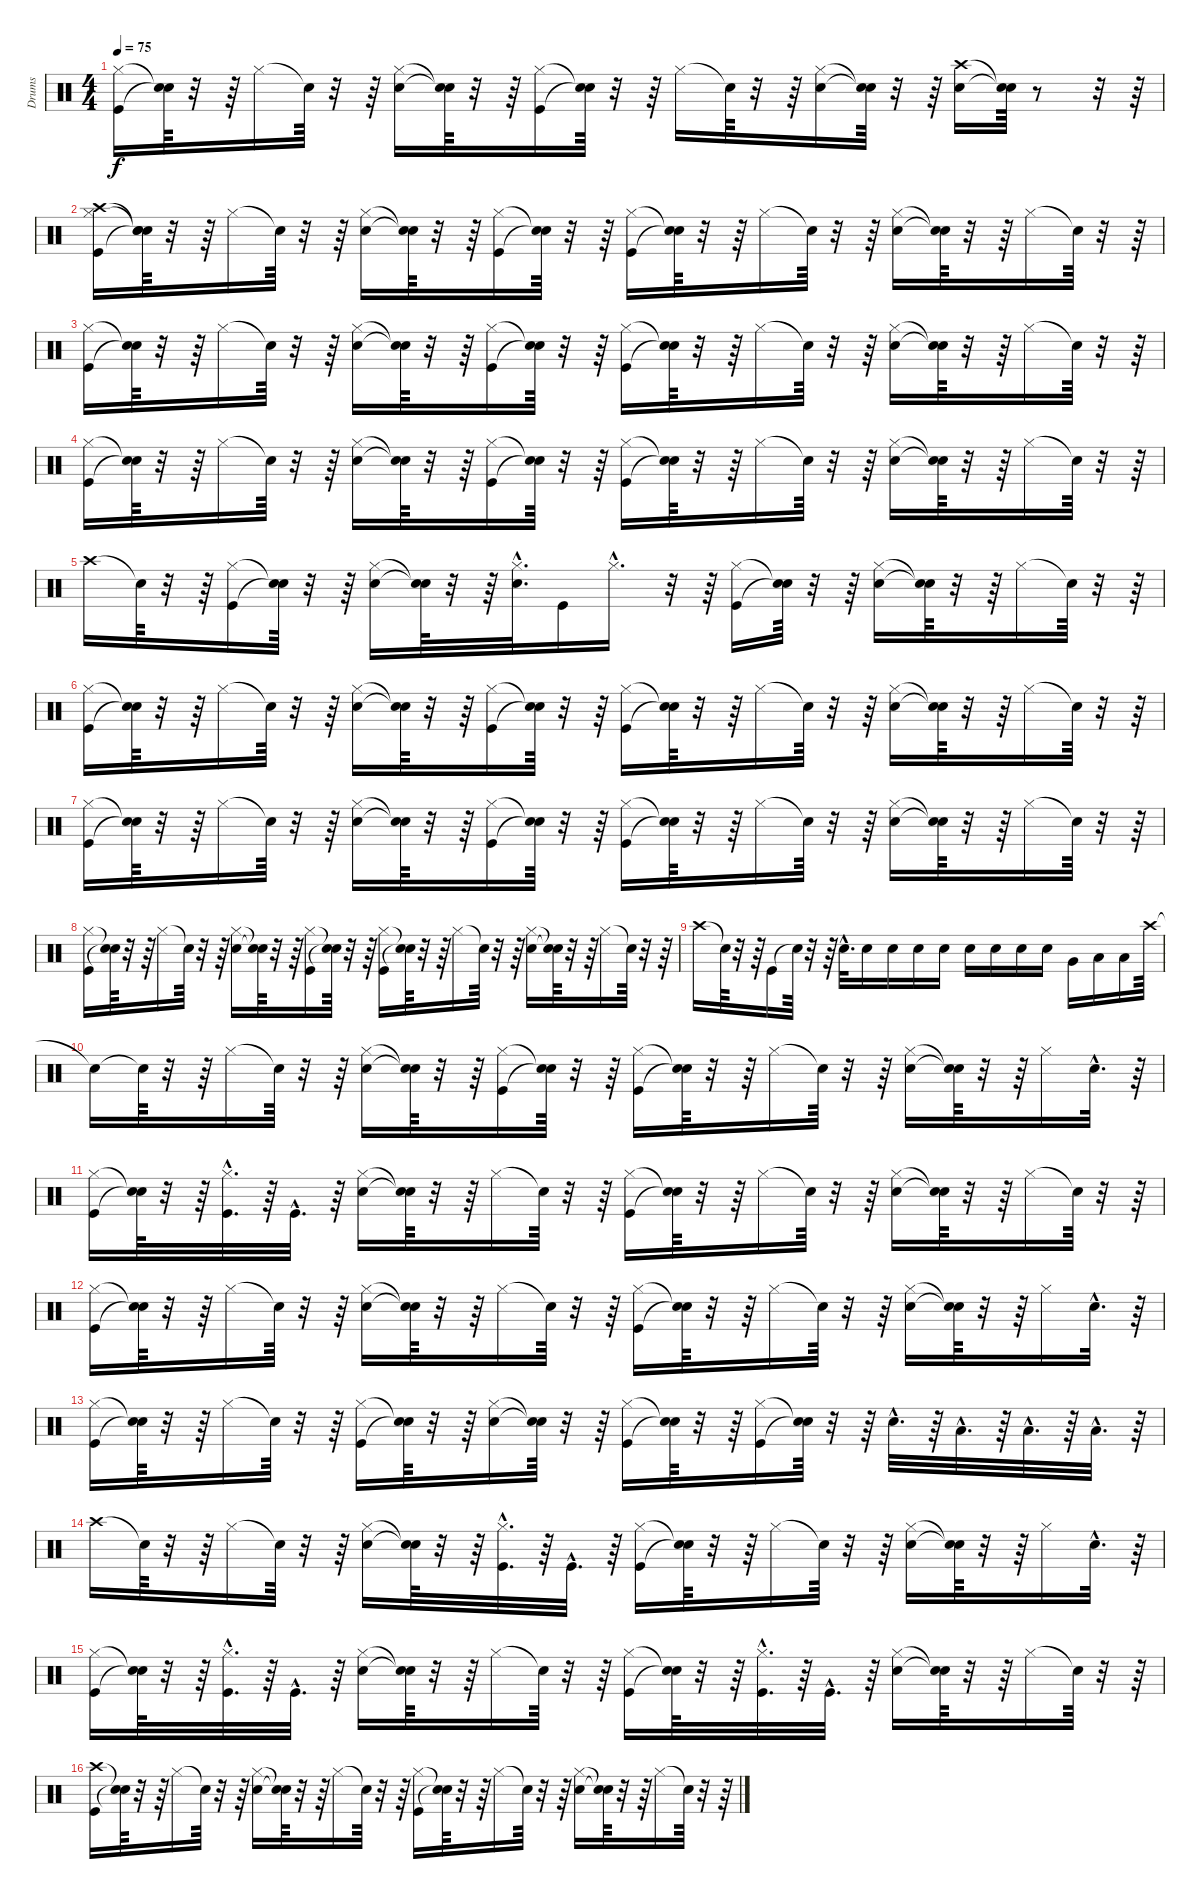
\track ("Drums" "Drums") {instrument percussion}
\staff {score}
\articulation defaults
\ts (4 4)
\tempo 75
\clef neutral
\ks c
("Kick (hit)" "Hi-Hat (closed)").16{dy f} ("Snare (hit)"{t} "Snare (hit)"{t}).64 r.32 r.64 "Hi-Hat (closed)".16 "Snare (hit)"{t}.64 r.32 r.64 ("Snare (hit) 2" "Hi-Hat (closed)").16 ("Snare (hit)"{t} "Snare (hit)"{t}).64 r.32 r.64 ("Hi-Hat (closed)" "Kick (hit)").16 ("Snare (hit)"{t} "Snare (hit)"{t}).64 r.32 r.64 "Hi-Hat (closed)".16 "Snare (hit)"{t}.64 r.32 r.64 ("Snare (hit) 2" "Hi-Hat (closed)").16 ("Snare (hit)"{t} "Snare (hit)"{t}).64 r.32 r.64 ("Crash high (hit)" "Snare (hit) 2").16 ("Snare (hit)"{t} "Snare (hit)"{t}).64 r.8 r.32 r.64 |
("Crash high (hit)" "Kick (hit)" "Hi-Hat (closed)").16 ("Snare (hit)"{t} "Snare (hit)"{t} "Snare (hit)"{t}).64 r.32 r.64 "Hi-Hat (closed)".16 "Snare (hit)"{t}.64 r.32 r.64 ("Snare (hit) 2" "Hi-Hat (closed)").16 ("Snare (hit)"{t} "Snare (hit)"{t}).64 r.32 r.64 ("Kick (hit)" "Hi-Hat (closed)").16 ("Snare (hit)"{t} "Snare (hit)"{t}).64 r.32 r.64 ("Kick (hit)" "Hi-Hat (closed)").16 ("Snare (hit)"{t} "Snare (hit)"{t}).64 r.32 r.64 "Hi-Hat (closed)".16 "Snare (hit)"{t}.64 r.32 r.64 ("Snare (hit) 2" "Hi-Hat (closed)").16 ("Snare (hit)"{t} "Snare (hit)"{t}).64 r.32 r.64 "Hi-Hat (closed)".16 "Snare (hit)"{t}.64 r.32 r.64 |
("Kick (hit)" "Hi-Hat (closed)").16 ("Snare (hit)"{t} "Snare (hit)"{t}).64 r.32 r.64 "Hi-Hat (closed)".16 "Snare (hit)"{t}.64 r.32 r.64 ("Snare (hit) 2" "Hi-Hat (closed)").16 ("Snare (hit)"{t} "Snare (hit)"{t}).64 r.32 r.64 ("Kick (hit)" "Hi-Hat (closed)").16 ("Snare (hit)"{t} "Snare (hit)"{t}).64 r.32 r.64 ("Kick (hit)" "Hi-Hat (closed)").16 ("Snare (hit)"{t} "Snare (hit)"{t}).64 r.32 r.64 "Hi-Hat (closed)".16 "Snare (hit)"{t}.64 r.32 r.64 ("Snare (hit) 2" "Hi-Hat (closed)").16 ("Snare (hit)"{t} "Snare (hit)"{t}).64 r.32 r.64 "Hi-Hat (closed)".16 "Snare (hit)"{t}.64 r.32 r.64 |
("Kick (hit)" "Hi-Hat (closed)").16 ("Snare (hit)"{t} "Snare (hit)"{t}).64 r.32 r.64 "Hi-Hat (closed)".16 "Snare (hit)"{t}.64 r.32 r.64 ("Snare (hit) 2" "Hi-Hat (closed)").16 ("Snare (hit)"{t} "Snare (hit)"{t}).64 r.32 r.64 ("Kick (hit)" "Hi-Hat (closed)").16 ("Snare (hit)"{t} "Snare (hit)"{t}).64 r.32 r.64 ("Kick (hit)" "Hi-Hat (closed)").16 ("Snare (hit)"{t} "Snare (hit)"{t}).64 r.32 r.64 "Hi-Hat (closed)".16 "Snare (hit)"{t}.64 r.32 r.64 ("Snare (hit) 2" "Hi-Hat (closed)").16 ("Snare (hit)"{t} "Snare (hit)"{t}).64 r.32 r.64 "Hi-Hat (closed)".16 "Snare (hit)"{t}.64 r.32 r.64 |
"Crash high (hit)".16 "Snare (hit)"{t}.64 r.32 r.64 ("Hi-Hat (closed)" "Kick (hit)").16 ("Snare (hit)"{t} "Snare (hit)"{t}).64 r.32 r.64 ("Hi-Hat (closed)" "Snare (hit) 2").16 ("Snare (hit)"{t} "Snare (hit)"{t}).64 r.32 r.64 ("Hi-Hat (closed)"{hac} "Snare (hit) 2"{hac}).32{d} "Kick (hit)".16 "Hi-Hat (closed)"{hac}.16{d} r.32 r.64 ("Hi-Hat (closed)" "Kick (hit)").16 ("Snare (hit)"{t} "Snare (hit)"{t}).64 r.32 r.64 ("Hi-Hat (closed)" "Snare (hit) 2").16 ("Snare (hit)"{t} "Snare (hit)"{t}).64 r.32 r.64 "Hi-Hat (closed)".16 "Snare (hit)"{t}.64 r.32 r.64 |
("Hi-Hat (closed)" "Kick (hit)").16 ("Snare (hit)"{t} "Snare (hit)"{t}).64 r.32 r.64 "Hi-Hat (closed)".16 "Snare (hit)"{t}.64 r.32 r.64 ("Snare (hit) 2" "Hi-Hat (closed)").16 ("Snare (hit)"{t} "Snare (hit)"{t}).64 r.32 r.64 ("Kick (hit)" "Hi-Hat (closed)").16 ("Snare (hit)"{t} "Snare (hit)"{t}).64 r.32 r.64 ("Kick (hit)" "Hi-Hat (closed)").16 ("Snare (hit)"{t} "Snare (hit)"{t}).64 r.32 r.64 "Hi-Hat (closed)".16 "Snare (hit)"{t}.64 r.32 r.64 ("Hi-Hat (closed)" "Snare (hit) 2").16 ("Snare (hit)"{t} "Snare (hit)"{t}).64 r.32 r.64 "Hi-Hat (closed)".16 "Snare (hit)"{t}.64 r.32 r.64 |
("Hi-Hat (closed)" "Kick (hit)").16 ("Snare (hit)"{t} "Snare (hit)"{t}).64 r.32 r.64 "Hi-Hat (closed)".16 "Snare (hit)"{t}.64 r.32 r.64 ("Snare (hit) 2" "Hi-Hat (closed)").16 ("Snare (hit)"{t} "Snare (hit)"{t}).64 r.32 r.64 ("Kick (hit)" "Hi-Hat (closed)").16 ("Snare (hit)"{t} "Snare (hit)"{t}).64 r.32 r.64 ("Kick (hit)" "Hi-Hat (closed)").16 ("Snare (hit)"{t} "Snare (hit)"{t}).64 r.32 r.64 "Hi-Hat (closed)".16 "Snare (hit)"{t}.64 r.32 r.64 ("Hi-Hat (closed)" "Snare (hit) 2").16 ("Snare (hit)"{t} "Snare (hit)"{t}).64 r.32 r.64 "Hi-Hat (closed)".16 "Snare (hit)"{t}.64 r.32 r.64 |
("Hi-Hat (closed)" "Kick (hit)").16 ("Snare (hit)"{t} "Snare (hit)"{t}).64 r.32 r.64 "Hi-Hat (closed)".16 "Snare (hit)"{t}.64 r.32 r.64 ("Snare (hit) 2" "Hi-Hat (closed)").16 ("Snare (hit)"{t} "Snare (hit)"{t}).64 r.32 r.64 ("Kick (hit)" "Hi-Hat (closed)").16 ("Snare (hit)"{t} "Snare (hit)"{t}).64 r.32 r.64 ("Kick (hit)" "Hi-Hat (closed)").16 ("Snare (hit)"{t} "Snare (hit)"{t}).64 r.32 r.64 "Hi-Hat (closed)".16 "Snare (hit)"{t}.64 r.32 r.64 ("Hi-Hat (closed)" "Snare (hit) 2").16 ("Snare (hit)"{t} "Snare (hit)"{t}).64 r.32 r.64 "Hi-Hat (closed)".16 "Snare (hit)"{t}.64 r.32 r.64 |
"Crash high (hit)".16 "Snare (hit)"{t}.64 r.32 r.64 "Kick (hit)".16 "Snare (hit)"{t}.64 r.32 r.64 "Snare (hit) 2"{hac}.32{d} "Snare (hit) 2".16 "Snare (hit) 2".16 "Snare (hit) 2".16 "Snare (hit) 2".16 "Snare (hit) 2".16 "Snare (hit) 2".16 "Snare (hit) 2".16 "Snare (hit) 2".16 "Very Low Tom (hit)".16 "Low Floor Tom (hit)".16 "Low Floor Tom (hit)".16 "Crash high (hit)".64 |
"Snare (hit)"{t}.16 "Snare (hit)"{t}.64 r.32 r.64 "Hi-Hat (closed)".16 "Snare (hit)"{t}.64 r.32 r.64 ("Snare (hit) 2" "Hi-Hat (closed)").16 ("Snare (hit)"{t} "Snare (hit)"{t}).64 r.32 r.64 ("Kick (hit)" "Hi-Hat (closed)").16 ("Snare (hit)"{t} "Snare (hit)"{t}).64 r.32 r.64 ("Kick (hit)" "Hi-Hat (closed)").16 ("Snare (hit)"{t} "Snare (hit)"{t}).64 r.32 r.64 "Hi-Hat (closed)".16 "Snare (hit)"{t}.64 r.32 r.64 ("Snare (hit) 2" "Hi-Hat (closed)").16 ("Snare (hit)"{t} "Snare (hit)"{t}).64 r.32 r.64 "Hi-Hat (closed)".16 "Snare (hit) 2"{hac}.32{d} r.64 |
("Kick (hit)" "Hi-Hat (closed)").16 ("Snare (hit)"{t} "Snare (hit)"{t}).64 r.32 r.64 ("Kick (hit)"{hac} "Hi-Hat (closed)"{hac}).32{d} r.64 "Kick (hit)"{hac}.32{d} r.64 ("Snare (hit) 2" "Hi-Hat (closed)").16 ("Snare (hit)"{t} "Snare (hit)"{t}).64 r.32 r.64 "Hi-Hat (closed)".16 "Snare (hit)"{t}.64 r.32 r.64 ("Kick (hit)" "Hi-Hat (closed)").16 ("Snare (hit)"{t} "Snare (hit)"{t}).64 r.32 r.64 "Hi-Hat (closed)".16 "Snare (hit)"{t}.64 r.32 r.64 ("Snare (hit) 2" "Hi-Hat (closed)").16 ("Snare (hit)"{t} "Snare (hit)"{t}).64 r.32 r.64 "Hi-Hat (closed)".16 "Snare (hit)"{t}.64 r.32 r.64 |
("Kick (hit)" "Hi-Hat (closed)").16 ("Snare (hit)"{t} "Snare (hit)"{t}).64 r.32 r.64 "Hi-Hat (closed)".16 "Snare (hit)"{t}.64 r.32 r.64 ("Snare (hit) 2" "Hi-Hat (closed)").16 ("Snare (hit)"{t} "Snare (hit)"{t}).64 r.32 r.64 "Hi-Hat (closed)".16 "Snare (hit)"{t}.64 r.32 r.64 ("Kick (hit)" "Hi-Hat (closed)").16 ("Snare (hit)"{t} "Snare (hit)"{t}).64 r.32 r.64 "Hi-Hat (closed)".16 "Snare (hit)"{t}.64 r.32 r.64 ("Snare (hit) 2" "Hi-Hat (closed)").16 ("Snare (hit)"{t} "Snare (hit)"{t}).64 r.32 r.64 "Hi-Hat (closed)".16 "Snare (hit) 2"{hac}.32{d} r.64 |
("Kick (hit)" "Hi-Hat (closed)").16 ("Snare (hit)"{t} "Snare (hit)"{t}).64 r.32 r.64 "Hi-Hat (closed)".16 "Snare (hit)"{t}.64 r.32 r.64 ("Kick (hit)" "Hi-Hat (closed)").16 ("Snare (hit)"{t} "Snare (hit)"{t}).64 r.32 r.64 ("Snare (hit) 2" "Hi-Hat (closed)").16 ("Snare (hit)"{t} "Snare (hit)"{t}).64 r.32 r.64 ("Kick (hit)" "Hi-Hat (closed)").16 ("Snare (hit)"{t} "Snare (hit)"{t}).64 r.32 r.64 ("Kick (hit)" "Hi-Hat (closed)").16 ("Snare (hit)"{t} "Snare (hit)"{t}).64 r.32 r.64 "Snare (hit) 2"{hac}.32{d} r.64 "Low Tom (hit)"{hac}.32{d} r.64 "Low Floor Tom (hit)"{hac}.32{d} r.64 "Low Floor Tom (hit)"{hac}.32{d} r.64 |
"Crash high (hit)".16 "Snare (hit)"{t}.64 r.32 r.64 "Hi-Hat (closed)".16 "Snare (hit)"{t}.64 r.32 r.64 ("Snare (hit) 2" "Hi-Hat (closed)").16 ("Snare (hit)"{t} "Snare (hit)"{t}).64 r.32 r.64 ("Kick (hit)"{hac} "Hi-Hat (closed)"{hac}).32{d} r.64 "Kick (hit)"{hac}.32{d} r.64 ("Kick (hit)" "Hi-Hat (closed)").16 ("Snare (hit)"{t} "Snare (hit)"{t}).64 r.32 r.64 "Hi-Hat (closed)".16 "Snare (hit)"{t}.64 r.32 r.64 ("Hi-Hat (closed)" "Snare (hit) 2").16 ("Snare (hit)"{t} "Snare (hit)"{t}).64 r.32 r.64 "Hi-Hat (closed)".16 "Snare (hit) 2"{hac}.32{d} r.64 |
("Kick (hit)" "Hi-Hat (closed)").16 ("Snare (hit)"{t} "Snare (hit)"{t}).64 r.32 r.64 ("Hi-Hat (closed)"{hac} "Kick (hit)"{hac}).32{d} r.64 "Kick (hit)"{hac}.32{d} r.64 ("Snare (hit) 2" "Hi-Hat (closed)").16 ("Snare (hit)"{t} "Snare (hit)"{t}).64 r.32 r.64 "Hi-Hat (closed)".16 "Snare (hit)"{t}.64 r.32 r.64 ("Hi-Hat (closed)" "Kick (hit)").16 ("Snare (hit)"{t} "Snare (hit)"{t}).64 r.32 r.64 ("Hi-Hat (closed)"{hac} "Kick (hit)"{hac}).32{d} r.64 "Kick (hit)"{hac}.32{d} r.64 ("Hi-Hat (closed)" "Snare (hit) 2").16 ("Snare (hit)"{t} "Snare (hit)"{t}).64 r.32 r.64 "Hi-Hat (closed)".16 "Snare (hit)"{t}.64 r.32 r.64 |
("Crash high (hit)" "Kick (hit)").16 ("Snare (hit)"{t} "Snare (hit)"{t}).64 r.32 r.64 "Hi-Hat (closed)".16 "Snare (hit)"{t}.64 r.32 r.64 ("Hi-Hat (closed)" "Snare (hit) 2").16 ("Snare (hit)"{t} "Snare (hit)"{t}).64 r.32 r.64 "Hi-Hat (closed)".16 "Snare (hit)"{t}.64 r.32 r.64 ("Hi-Hat (closed)" "Kick (hit)").16 ("Snare (hit)"{t} "Snare (hit)"{t}).64 r.32 r.64 "Hi-Hat (closed)".16 "Snare (hit)"{t}.64 r.32 r.64 ("Hi-Hat (closed)" "Snare (hit) 2").16 ("Snare (hit)"{t} "Snare (hit)"{t}).64 r.32 r.64 "Hi-Hat (closed)".16 "Snare (hit)"{t}.64 r.32 r.64
